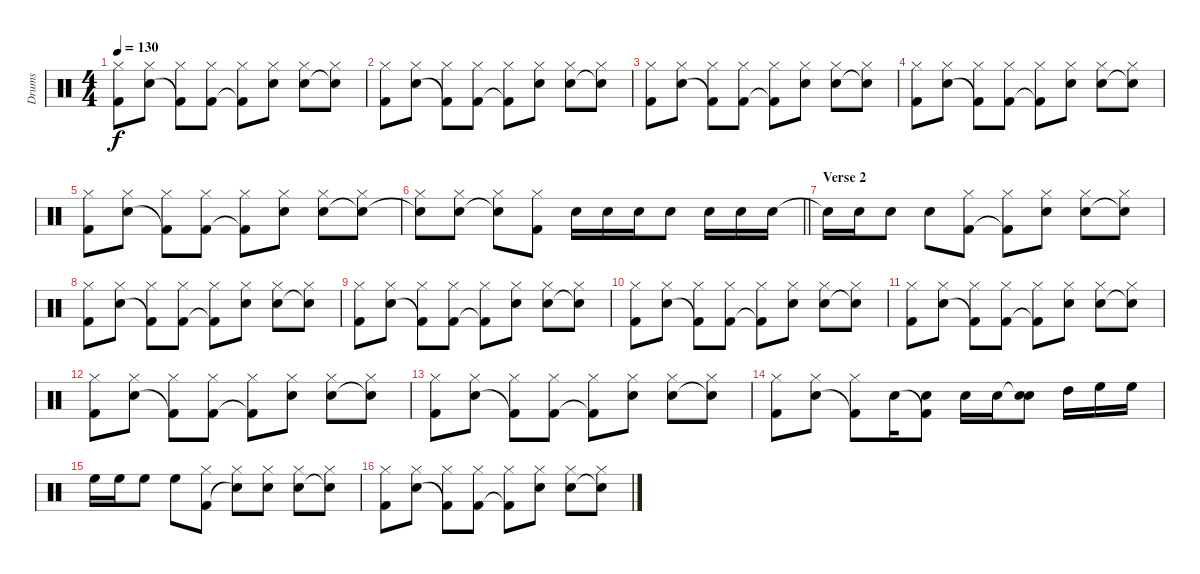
\track ("Drums" "Drums") {instrument percussion}
\staff {score}
\articulation defaults
\ts (4 4)
\tempo 130
\clef neutral
\ks c
("Kick (hit) 2" "Hi-Hat (closed)").8{dy f} ("Snare (hit) 2" "Hi-Hat (closed)").8 ("Kick (hit) 2"{t} "Hi-Hat (closed)").8 ("Kick (hit) 2" "Hi-Hat (closed)").8 ("Kick (hit) 2"{t} "Hi-Hat (closed)").8 ("Snare (hit) 2" "Hi-Hat (closed)").8 ("Snare (hit) 2" "Hi-Hat (closed)").8 ("Snare (hit) 2"{t} "Hi-Hat (closed)").8 |
("Kick (hit) 2" "Hi-Hat (closed)").8 ("Snare (hit) 2" "Hi-Hat (closed)").8 ("Kick (hit) 2"{t} "Hi-Hat (closed)").8 ("Kick (hit) 2" "Hi-Hat (closed)").8 ("Kick (hit) 2"{t} "Hi-Hat (closed)").8 ("Snare (hit) 2" "Hi-Hat (closed)").8 ("Snare (hit) 2" "Hi-Hat (closed)").8 ("Snare (hit) 2"{t} "Hi-Hat (closed)").8 |
("Kick (hit) 2" "Hi-Hat (closed)").8 ("Snare (hit) 2" "Hi-Hat (closed)").8 ("Kick (hit) 2"{t} "Hi-Hat (closed)").8 ("Kick (hit) 2" "Hi-Hat (closed)").8 ("Kick (hit) 2"{t} "Hi-Hat (closed)").8 ("Snare (hit) 2" "Hi-Hat (closed)").8 ("Snare (hit) 2" "Hi-Hat (closed)").8 ("Snare (hit) 2"{t} "Hi-Hat (closed)").8 |
("Kick (hit) 2" "Hi-Hat (closed)").8 ("Snare (hit) 2" "Hi-Hat (closed)").8 ("Kick (hit) 2"{t} "Hi-Hat (closed)").8 ("Kick (hit) 2" "Hi-Hat (closed)").8 ("Kick (hit) 2"{t} "Hi-Hat (closed)").8 ("Snare (hit) 2" "Hi-Hat (closed)").8 ("Snare (hit) 2" "Hi-Hat (closed)").8 ("Snare (hit) 2"{t} "Hi-Hat (closed)").8 |
("Kick (hit) 2" "Hi-Hat (closed)").8 ("Snare (hit) 2" "Hi-Hat (closed)").8 ("Kick (hit) 2"{t} "Hi-Hat (closed)").8 ("Kick (hit) 2" "Hi-Hat (closed)").8 ("Kick (hit) 2"{t} "Hi-Hat (closed)").8 ("Snare (hit) 2" "Hi-Hat (closed)").8 ("Snare (hit) 2" "Hi-Hat (closed)").8 ("Snare (hit) 2"{t} "Hi-Hat (closed)").8 |
\barLineRight lightlight
("Snare (hit)"{t} "Hi-Hat (closed)").8 ("Snare (hit) 2" "Hi-Hat (closed)").8 ("Snare (hit)"{t} "Hi-Hat (closed)").8 ("Kick (hit) 2" "Hi-Hat (closed)").8 "Snare (hit) 2".16 "Snare (hit) 2".16 "Snare (hit) 2".16 "Snare (hit) 2".8 "Snare (hit) 2".16 "Snare (hit) 2".16 "Snare (hit) 2".16 |
\section ("" "Verse 2")
"Snare (hit) 2"{t}.16 "Snare (hit) 2".16 "Snare (hit) 2".8 "Snare (hit) 2".8 ("Kick (hit) 2" "Hi-Hat (closed)").8 ("Kick (hit) 2"{t} "Hi-Hat (closed)").8 ("Snare (hit) 2" "Hi-Hat (closed)").8 ("Snare (hit) 2" "Hi-Hat (closed)").8 ("Snare (hit)"{t} "Hi-Hat (closed)").8 |
("Kick (hit) 2" "Hi-Hat (closed)").8 ("Snare (hit) 2" "Hi-Hat (closed)").8 ("Kick (hit) 2"{t} "Hi-Hat (closed)").8 ("Kick (hit) 2" "Hi-Hat (closed)").8 ("Kick (hit) 2"{t} "Hi-Hat (closed)").8 ("Snare (hit) 2" "Hi-Hat (closed)").8 ("Snare (hit) 2" "Hi-Hat (closed)").8 ("Snare (hit) 2"{t} "Hi-Hat (closed)").8 |
("Kick (hit) 2" "Hi-Hat (closed)").8 ("Snare (hit) 2" "Hi-Hat (closed)").8 ("Kick (hit) 2"{t} "Hi-Hat (closed)").8 ("Kick (hit) 2" "Hi-Hat (closed)").8 ("Kick (hit) 2"{t} "Hi-Hat (closed)").8 ("Snare (hit) 2" "Hi-Hat (closed)").8 ("Snare (hit) 2" "Hi-Hat (closed)").8 ("Snare (hit) 2"{t} "Hi-Hat (closed)").8 |
("Kick (hit) 2" "Hi-Hat (closed)").8 ("Snare (hit) 2" "Hi-Hat (closed)").8 ("Kick (hit) 2"{t} "Hi-Hat (closed)").8 ("Kick (hit) 2" "Hi-Hat (closed)").8 ("Kick (hit) 2"{t} "Hi-Hat (closed)").8 ("Snare (hit) 2" "Hi-Hat (closed)").8 ("Snare (hit) 2" "Hi-Hat (closed)").8 ("Snare (hit) 2"{t} "Hi-Hat (closed)").8 |
("Kick (hit) 2" "Hi-Hat (closed)").8 ("Snare (hit) 2" "Hi-Hat (closed)").8 ("Kick (hit) 2"{t} "Hi-Hat (closed)").8 ("Kick (hit) 2" "Hi-Hat (closed)").8 ("Kick (hit) 2"{t} "Hi-Hat (closed)").8 ("Snare (hit) 2" "Hi-Hat (closed)").8 ("Snare (hit) 2" "Hi-Hat (closed)").8 ("Snare (hit) 2"{t} "Hi-Hat (closed)").8 |
("Kick (hit) 2" "Hi-Hat (closed)").8 ("Snare (hit) 2" "Hi-Hat (closed)").8 ("Kick (hit) 2"{t} "Hi-Hat (closed)").8 ("Kick (hit) 2" "Hi-Hat (closed)").8 ("Kick (hit) 2"{t} "Hi-Hat (closed)").8 ("Snare (hit) 2" "Hi-Hat (closed)").8 ("Snare (hit) 2" "Hi-Hat (closed)").8 ("Snare (hit) 2"{t} "Hi-Hat (closed)").8 |
("Kick (hit) 2" "Hi-Hat (closed)").8 ("Snare (hit) 2" "Hi-Hat (closed)").8 ("Kick (hit) 2"{t} "Hi-Hat (closed)").8 ("Kick (hit) 2" "Hi-Hat (closed)").8 ("Kick (hit) 2"{t} "Hi-Hat (closed)").8 ("Snare (hit) 2" "Hi-Hat (closed)").8 ("Snare (hit) 2" "Hi-Hat (closed)").8 ("Snare (hit) 2"{t} "Hi-Hat (closed)").8 |
("Kick (hit) 2" "Hi-Hat (closed)").8 ("Snare (hit) 2" "Hi-Hat (closed)").8 ("Kick (hit) 2"{t} "Hi-Hat (closed)").8 "Snare (hit) 2".16 ("Kick (hit) 2"{t} "Snare (hit) 2").8 "Snare (hit) 2".16 "Snare (hit) 2".16 ("Snare (hit) 2"{t} "Snare (hit) 2").8 "High Tom (hit)".16 "High Floor Tom (hit)".16 "High Floor Tom (hit)".16 |
"High Floor Tom (hit)".16 "High Floor Tom (hit)".16 "High Floor Tom (hit)".8 "High Floor Tom (hit)".8 ("Kick (hit) 2" "Hi-Hat (closed)").8 ("Snare (hit) 2"{t} "Hi-Hat (closed)").8 ("Snare (hit) 2" "Hi-Hat (closed)").8 ("Snare (hit) 2" "Hi-Hat (closed)").8 ("Snare (hit)"{t} "Hi-Hat (closed)").8 |
("Kick (hit) 2" "Hi-Hat (closed)").8 ("Snare (hit) 2" "Hi-Hat (closed)").8 ("Kick (hit) 2"{t} "Hi-Hat (closed)").8 ("Kick (hit) 2" "Hi-Hat (closed)").8 ("Kick (hit) 2"{t} "Hi-Hat (closed)").8 ("Snare (hit) 2" "Hi-Hat (closed)").8 ("Snare (hit) 2" "Hi-Hat (closed)").8 ("Snare (hit) 2"{t} "Hi-Hat (closed)").8
